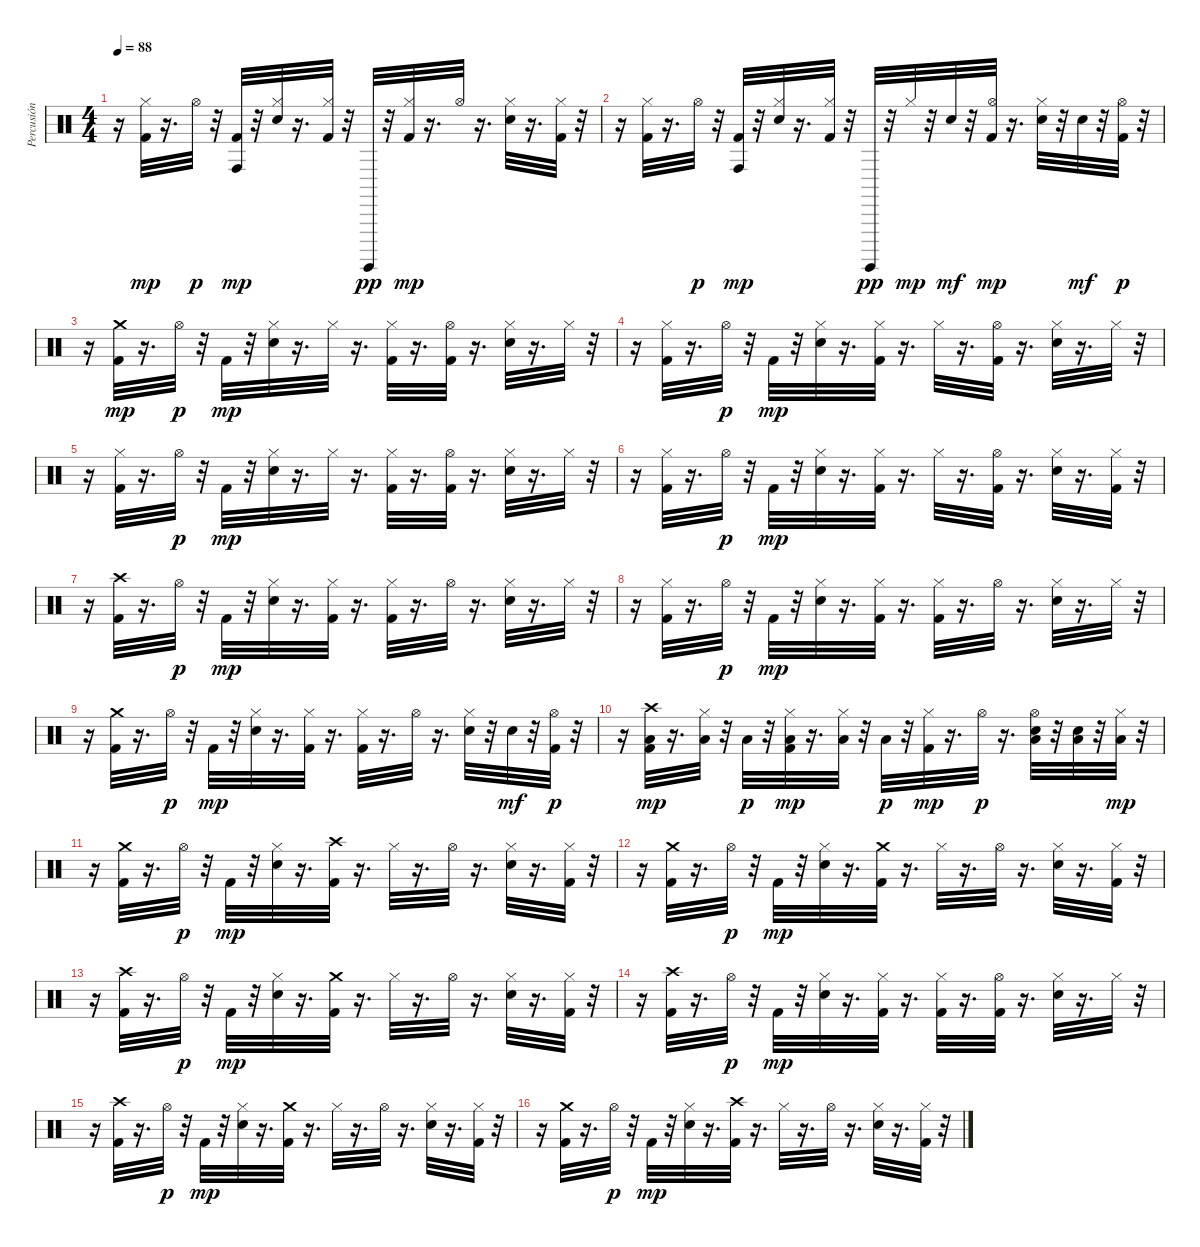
\track ("Percusión" "Percusión") {instrument percussion}
\staff {score}
\articulation defaults
\ts (4 4)
\tempo 88
\clef neutral
\ks c
r.16{dy mp} ("Kick (hit) 2" "Hi-Hat (closed)").32 r.16{d} "Hi-Hat (open)".32{dy p} r.32 ("Kick (hit) 2" "Conga high (hit)").32{dy mp} r.32 ("Electric Snare (hit)" "Hi-Hat (closed)").32 r.16{d} ("Kick (hit) 2" "Hi-Hat (closed)").32 r.32 "Surdo (hit)".32{dy pp} r.32 ("Kick (hit) 2" "Hi-Hat (closed)").32{dy mp} r.16{d} "Hi-Hat (open)".32 r.16{d} ("Electric Snare (hit)" "Hi-Hat (closed)").32 r.16{d} ("Kick (hit) 2" "Hi-Hat (closed)").32 r.32 |
r.16 ("Kick (hit) 2" "Hi-Hat (closed)").32 r.16{d} "Hi-Hat (open)".32{dy p} r.32 ("Kick (hit) 2" "Conga high (hit)").32{dy mp} r.32 ("Electric Snare (hit)" "Hi-Hat (closed)").32 r.16{d} ("Kick (hit) 2" "Hi-Hat (closed)").32 r.32 "Surdo (hit)".32{dy pp} r.32 "Hi-Hat (closed)".32{dy mp} r.32 "Electric Snare (hit)".32{dy mf} r.32 ("Kick (hit) 2" "Hi-Hat (open)").32{dy mp} r.16{d} ("Electric Snare (hit)" "Hi-Hat (closed)").32 r.32 "Electric Snare (hit)".32{dy mf} r.32 ("Kick (hit) 2" "Hi-Hat (open)").32{dy p} r.32 |
r.16 ("Kick (hit) 2" "Crash medium (hit)").32{dy mp} r.16{d} "Hi-Hat (open)".32{dy p} r.32 "Kick (hit) 2".32{dy mp} r.32 ("Electric Snare (hit)" "Hi-Hat (closed)").32 r.16{d} "Hi-Hat (closed)".32 r.16{d} ("Kick (hit) 2" "Hi-Hat (closed)").32 r.16{d} ("Kick (hit) 2" "Hi-Hat (open)").32 r.16{d} ("Electric Snare (hit)" "Hi-Hat (closed)").32 r.16{d} "Hi-Hat (closed)".32 r.32 |
r.16 ("Kick (hit) 2" "Hi-Hat (closed)").32 r.16{d} "Hi-Hat (open)".32{dy p} r.32 "Kick (hit) 2".32{dy mp} r.32 ("Electric Snare (hit)" "Hi-Hat (closed)").32 r.16{d} ("Kick (hit) 2" "Hi-Hat (closed)").32 r.16{d} "Hi-Hat (closed)".32 r.16{d} ("Kick (hit) 2" "Hi-Hat (open)").32 r.16{d} ("Electric Snare (hit)" "Hi-Hat (closed)").32 r.16{d} "Hi-Hat (closed)".32 r.32 |
r.16 ("Kick (hit) 2" "Hi-Hat (closed)").32 r.16{d} "Hi-Hat (open)".32{dy p} r.32 "Kick (hit) 2".32{dy mp} r.32 ("Electric Snare (hit)" "Hi-Hat (closed)").32 r.16{d} "Hi-Hat (closed)".32 r.16{d} ("Kick (hit) 2" "Hi-Hat (closed)").32 r.16{d} ("Kick (hit) 2" "Hi-Hat (open)").32 r.16{d} ("Electric Snare (hit)" "Hi-Hat (closed)").32 r.16{d} "Hi-Hat (closed)".32 r.32 |
r.16 ("Kick (hit) 2" "Hi-Hat (closed)").32 r.16{d} "Hi-Hat (open)".32{dy p} r.32 "Kick (hit) 2".32{dy mp} r.32 ("Electric Snare (hit)" "Hi-Hat (closed)").32 r.16{d} ("Kick (hit) 2" "Hi-Hat (closed)").32 r.16{d} "Hi-Hat (closed)".32 r.16{d} ("Kick (hit) 2" "Hi-Hat (open)").32 r.16{d} ("Electric Snare (hit)" "Hi-Hat (closed)").32 r.16{d} ("Kick (hit) 2" "Hi-Hat (closed)").32 r.32 |
r.16 ("Kick (hit) 2" "Crash high (hit)").32 r.16{d} "Hi-Hat (open)".32{dy p} r.32 "Kick (hit) 2".32{dy mp} r.32 ("Electric Snare (hit)" "Hi-Hat (closed)").32 r.16{d} ("Kick (hit) 2" "Hi-Hat (closed)").32 r.16{d} ("Kick (hit) 2" "Hi-Hat (closed)").32 r.16{d} "Hi-Hat (open)".32 r.16{d} ("Electric Snare (hit)" "Hi-Hat (closed)").32 r.16{d} "Hi-Hat (closed)".32 r.32 |
r.16 ("Kick (hit) 2" "Hi-Hat (closed)").32 r.16{d} "Hi-Hat (open)".32{dy p} r.32 "Kick (hit) 2".32{dy mp} r.32 ("Electric Snare (hit)" "Hi-Hat (closed)").32 r.16{d} ("Kick (hit) 2" "Hi-Hat (closed)").32 r.16{d} ("Kick (hit) 2" "Hi-Hat (closed)").32 r.16{d} "Hi-Hat (open)".32 r.16{d} ("Electric Snare (hit)" "Hi-Hat (closed)").32 r.16{d} "Hi-Hat (closed)".32 r.32 |
r.16 ("Kick (hit) 2" "Crash medium (hit)").32 r.16{d} "Hi-Hat (open)".32{dy p} r.32 "Kick (hit) 2".32{dy mp} r.32 ("Electric Snare (hit)" "Hi-Hat (closed)").32 r.16{d} ("Kick (hit) 2" "Hi-Hat (closed)").32 r.16{d} ("Kick (hit) 2" "Hi-Hat (closed)").32 r.16{d} "Hi-Hat (open)".32 r.16{d} ("Electric Snare (hit)" "Hi-Hat (closed)").32 r.32 "Electric Snare (hit)".32{dy mf} r.32 ("Kick (hit) 2" "Hi-Hat (open)").32{dy p} r.32 |
r.16 ("Low Tom (hit)" "Kick (hit) 2" "Crash high (hit)").32{dy mp} r.16{d} ("Low Tom (hit)" "Hi-Hat (closed)").32 r.32 "Low Tom (hit)".32{dy p} r.32 ("Low Tom (hit)" "Kick (hit) 2" "Hi-Hat (closed)").32{dy mp} r.16{d} ("Low Tom (hit)" "Hi-Hat (closed)").32 r.32 "Low Tom (hit)".32{dy p} r.32 ("Kick (hit) 2" "Hi-Hat (closed)").32{dy mp} r.16{d} "Hi-Hat (open)".32{dy p} r.16{d} ("Electric Snare (hit)" "Low Tom (hit)" "Hi-Hat (open)").32 r.32 ("Electric Snare (hit)" "Low Tom (hit)").32 r.32 ("Low Tom (hit)" "Hi-Hat (closed)").32{dy mp} r.32 |
r.16 ("Kick (hit) 2" "Crash medium (hit)").32 r.16{d} "Hi-Hat (open)".32{dy p} r.32 "Kick (hit) 2".32{dy mp} r.32 ("Electric Snare (hit)" "Hi-Hat (closed)").32 r.16{d} ("Kick (hit) 2" "Crash high (hit)").32 r.16{d} "Hi-Hat (closed)".32 r.16{d} "Hi-Hat (open)".32 r.16{d} ("Electric Snare (hit)" "Hi-Hat (closed)").32 r.16{d} ("Kick (hit) 2" "Hi-Hat (closed)").32 r.32 |
r.16 ("Kick (hit) 2" "Crash medium (hit)").32 r.16{d} "Hi-Hat (open)".32{dy p} r.32 "Kick (hit) 2".32{dy mp} r.32 ("Electric Snare (hit)" "Hi-Hat (closed)").32 r.16{d} ("Kick (hit) 2" "Crash medium (hit)").32 r.16{d} "Hi-Hat (closed)".32 r.16{d} "Hi-Hat (open)".32 r.16{d} ("Electric Snare (hit)" "Hi-Hat (closed)").32 r.16{d} ("Kick (hit) 2" "Hi-Hat (closed)").32 r.32 |
r.16 ("Kick (hit) 2" "Crash high (hit)").32 r.16{d} "Hi-Hat (open)".32{dy p} r.32 "Kick (hit) 2".32{dy mp} r.32 ("Electric Snare (hit)" "Hi-Hat (closed)").32 r.16{d} ("Kick (hit) 2" "Crash medium (hit)").32 r.16{d} "Hi-Hat (closed)".32 r.16{d} "Hi-Hat (open)".32 r.16{d} ("Electric Snare (hit)" "Hi-Hat (closed)").32 r.16{d} ("Kick (hit) 2" "Hi-Hat (closed)").32 r.32 |
r.16 ("Kick (hit) 2" "Crash high (hit)").32 r.16{d} "Hi-Hat (open)".32{dy p} r.32 "Kick (hit) 2".32{dy mp} r.32 ("Electric Snare (hit)" "Hi-Hat (closed)").32 r.16{d} ("Kick (hit) 2" "Hi-Hat (closed)").32 r.16{d} ("Kick (hit) 2" "Hi-Hat (closed)").32 r.16{d} ("Kick (hit) 2" "Hi-Hat (open)").32 r.16{d} ("Electric Snare (hit)" "Hi-Hat (closed)").32 r.16{d} "Hi-Hat (closed)".32 r.32 |
r.16 ("Kick (hit) 2" "Crash high (hit)").32 r.16{d} "Hi-Hat (open)".32{dy p} r.32 "Kick (hit) 2".32{dy mp} r.32 ("Electric Snare (hit)" "Hi-Hat (closed)").32 r.16{d} ("Kick (hit) 2" "Crash medium (hit)").32 r.16{d} "Hi-Hat (closed)".32 r.16{d} "Hi-Hat (open)".32 r.16{d} ("Electric Snare (hit)" "Hi-Hat (closed)").32 r.16{d} ("Kick (hit) 2" "Hi-Hat (closed)").32 r.32 |
r.16 ("Kick (hit) 2" "Crash medium (hit)").32 r.16{d} "Hi-Hat (open)".32{dy p} r.32 "Kick (hit) 2".32{dy mp} r.32 ("Electric Snare (hit)" "Hi-Hat (closed)").32 r.16{d} ("Kick (hit) 2" "Crash high (hit)").32 r.16{d} "Hi-Hat (closed)".32 r.16{d} "Hi-Hat (open)".32 r.16{d} ("Electric Snare (hit)" "Hi-Hat (closed)").32 r.16{d} ("Kick (hit) 2" "Hi-Hat (closed)").32 r.32
